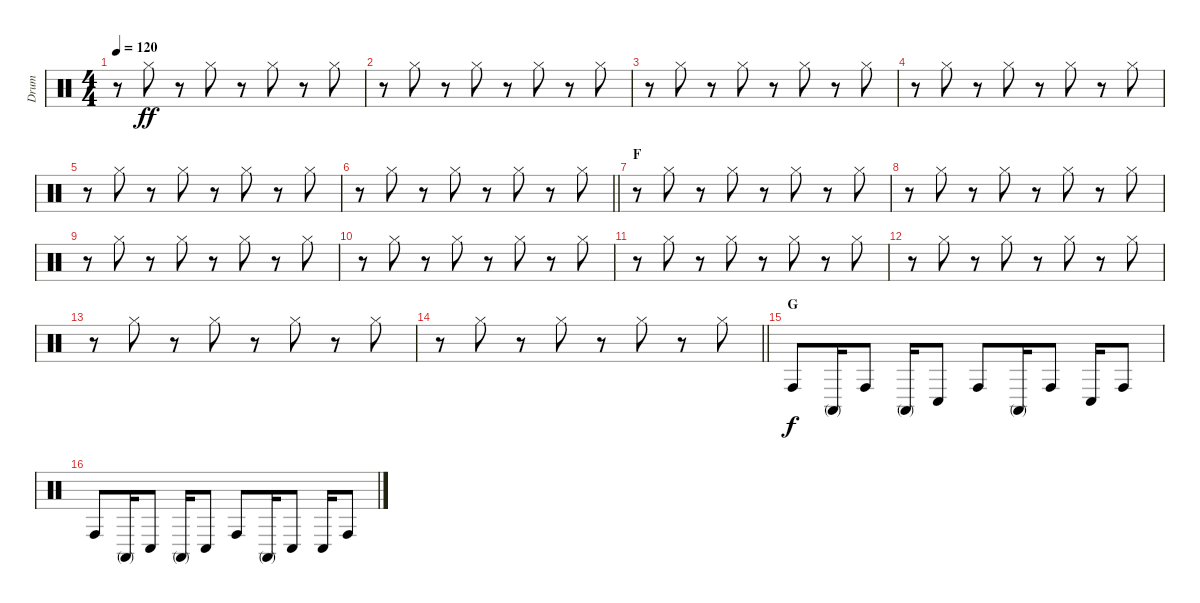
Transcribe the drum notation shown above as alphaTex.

\track ("Drum" "Drum") {instrument percussion}
\staff {score}
\articulation defaults
\ts (4 4)
\tempo 120
\clef neutral
\ks c
r.8{dy ff} "Hi-Hat (closed)".8 r.8 "Hi-Hat (closed)".8 r.8 "Hi-Hat (closed)".8 r.8 "Hi-Hat (closed)".8 |
r.8 "Hi-Hat (closed)".8 r.8 "Hi-Hat (closed)".8 r.8 "Hi-Hat (closed)".8 r.8 "Hi-Hat (closed)".8 |
r.8 "Hi-Hat (closed)".8 r.8 "Hi-Hat (closed)".8 r.8 "Hi-Hat (closed)".8 r.8 "Hi-Hat (closed)".8 |
r.8 "Hi-Hat (closed)".8 r.8 "Hi-Hat (closed)".8 r.8 "Hi-Hat (closed)".8 r.8 "Hi-Hat (closed)".8 |
r.8 "Hi-Hat (closed)".8 r.8 "Hi-Hat (closed)".8 r.8 "Hi-Hat (closed)".8 r.8 "Hi-Hat (closed)".8 |
\barLineRight lightlight
r.8 "Hi-Hat (closed)".8 r.8 "Hi-Hat (closed)".8 r.8 "Hi-Hat (closed)".8 r.8 "Hi-Hat (closed)".8 |
\section ("" "F")
r.8 "Hi-Hat (closed)".8 r.8 "Hi-Hat (closed)".8 r.8 "Hi-Hat (closed)".8 r.8 "Hi-Hat (closed)".8 |
r.8 "Hi-Hat (closed)".8 r.8 "Hi-Hat (closed)".8 r.8 "Hi-Hat (closed)".8 r.8 "Hi-Hat (closed)".8 |
r.8 "Hi-Hat (closed)".8 r.8 "Hi-Hat (closed)".8 r.8 "Hi-Hat (closed)".8 r.8 "Hi-Hat (closed)".8 |
r.8 "Hi-Hat (closed)".8 r.8 "Hi-Hat (closed)".8 r.8 "Hi-Hat (closed)".8 r.8 "Hi-Hat (closed)".8 |
r.8 "Hi-Hat (closed)".8 r.8 "Hi-Hat (closed)".8 r.8 "Hi-Hat (closed)".8 r.8 "Hi-Hat (closed)".8 |
r.8 "Hi-Hat (closed)".8 r.8 "Hi-Hat (closed)".8 r.8 "Hi-Hat (closed)".8 r.8 "Hi-Hat (closed)".8 |
r.8 "Hi-Hat (closed)".8 r.8 "Hi-Hat (closed)".8 r.8 "Hi-Hat (closed)".8 r.8 "Hi-Hat (closed)".8 |
\barLineRight lightlight
r.8 "Hi-Hat (closed)".8 r.8 "Hi-Hat (closed)".8 r.8 "Hi-Hat (closed)".8 r.8 "Hi-Hat (closed)".8 |
\section ("" "G")
"Conga high (hit)".8{dy f} "Conga high (mute)".16 "Conga high (hit)".8 "Conga high (mute)".16 "Conga low (hit)".8 "Conga high (hit)".8 "Conga high (mute)".16 "Conga high (hit)".8 "Conga low (hit)".16 "Conga high (hit)".8 |
"Conga high (hit)".8 "Conga high (mute)".16 "Conga low (hit)".8 "Conga high (mute)".16 "Conga low (hit)".8 "Conga high (hit)".8 "Conga high (mute)".16 "Conga low (hit)".8 "Conga low (hit)".16 "Conga high (hit)".8
